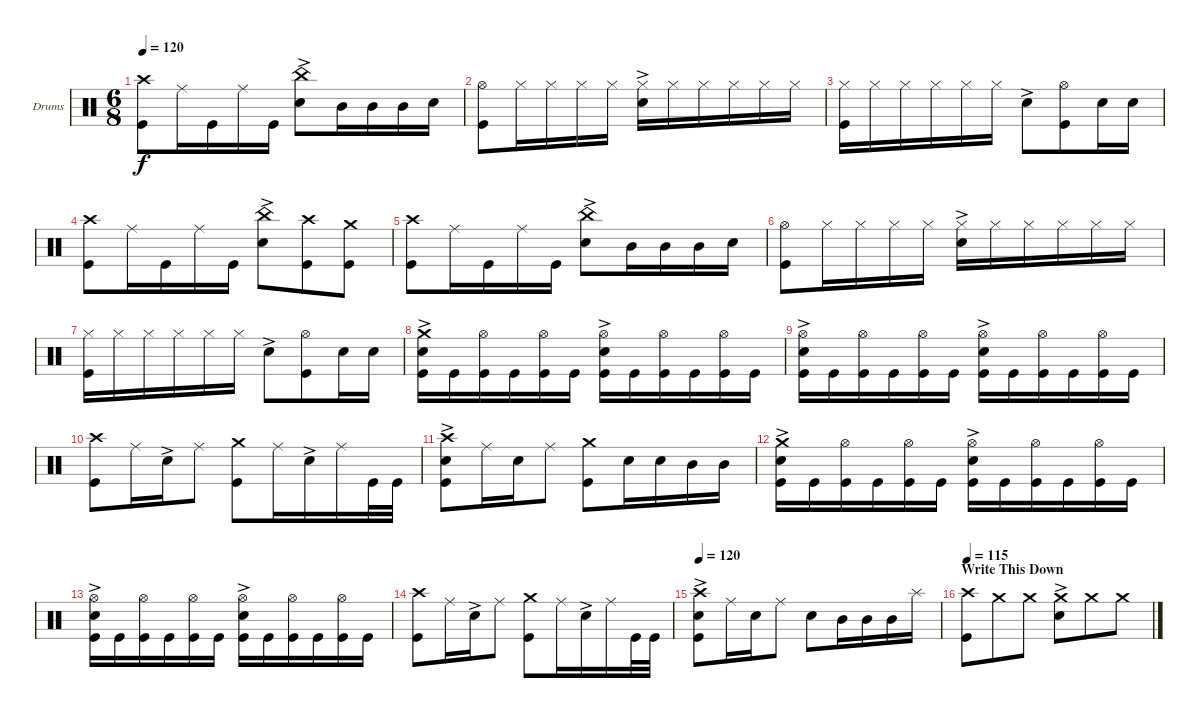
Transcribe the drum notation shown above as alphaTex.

\bracketExtendMode groupsimilarinstruments
\firstSystemTrackNameOrientation horizontal
\otherSystemsTrackNameOrientation horizontal
\track ("Drumkit" "Drums") {instrument percussion}
\staff {score}
\articulation defaults
\ts (6 8)
\tempo 120
\clef neutral
\ks c
("Kick (hit)" "Crash high (hit)").8{dy f} "Ride (middle)".16 "Kick (hit)".16 "Ride (middle)".16 "Kick (hit)".16 ("Snare (hit) 2"{ac} "China (hit)").8 "Mid Tom (hit)".16 "Mid Tom (hit)".16 "Mid Tom (hit)".16 "Snare (hit) 2".16 |
("Hi-Hat (open)" "Kick (hit)").8 "Hi-Hat (closed)".16 "Hi-Hat (closed)".16 "Hi-Hat (closed)".16 "Hi-Hat (closed)".16 ("Hi-Hat (closed)" "Snare (hit) 2"{ac}).16 "Hi-Hat (closed)".16 "Hi-Hat (closed)".16 "Hi-Hat (closed)".16 "Hi-Hat (closed)".16 "Hi-Hat (closed)".16 |
("Hi-Hat (closed)" "Kick (hit)").16 "Hi-Hat (closed)".16 "Hi-Hat (closed)".16 "Hi-Hat (closed)".16 "Hi-Hat (closed)".16 "Hi-Hat (closed)".16 "Snare (hit) 2"{ac}.8 ("Kick (hit)" "Hi-Hat (open)").8 "Snare (hit) 2".16 "Snare (hit) 2".16 |
("Kick (hit)" "Crash high (hit)").8 "Ride (middle)".16 "Kick (hit)".16 "Ride (middle)".16 "Kick (hit)".16 ("Snare (hit) 2"{ac} "China (hit)").8 ("Kick (hit)" "Crash high (hit)").8 ("Kick (hit)" "Crash medium (hit)").8 |
("Kick (hit)" "Crash high (hit)").8 "Ride (middle)".16 "Kick (hit)".16 "Ride (middle)".16 "Kick (hit)".16 ("Snare (hit) 2"{ac} "China (hit)").8 "Mid Tom (hit)".16 "Mid Tom (hit)".16 "Mid Tom (hit)".16 "Snare (hit) 2".16 |
("Hi-Hat (open)" "Kick (hit)").8 "Hi-Hat (closed)".16 "Hi-Hat (closed)".16 "Hi-Hat (closed)".16 "Hi-Hat (closed)".16 ("Hi-Hat (closed)" "Snare (hit) 2"{ac}).16 "Hi-Hat (closed)".16 "Hi-Hat (closed)".16 "Hi-Hat (closed)".16 "Hi-Hat (closed)".16 "Hi-Hat (closed)".16 |
("Hi-Hat (closed)" "Kick (hit)").16 "Hi-Hat (closed)".16 "Hi-Hat (closed)".16 "Hi-Hat (closed)".16 "Hi-Hat (closed)".16 "Hi-Hat (closed)".16 "Snare (hit) 2"{ac}.8 ("Kick (hit)" "Hi-Hat (open)").8 "Snare (hit) 2".16 "Snare (hit) 2".16 |
("Kick (hit)" "Crash medium (hit)" "Snare (hit) 2"{ac}).16 "Kick (hit)".16 ("Kick (hit)" "Hi-Hat (open)").16 "Kick (hit)".16 ("Kick (hit)" "Hi-Hat (open)").16 "Kick (hit)".16 ("Kick (hit)" "Hi-Hat (open)" "Snare (hit) 2"{ac}).16 "Kick (hit)".16 ("Kick (hit)" "Hi-Hat (open)").16 "Kick (hit)".16 ("Kick (hit)" "Hi-Hat (open)").16 "Kick (hit)".16 |
("Kick (hit)" "Hi-Hat (open)" "Snare (hit) 2"{ac}).16 "Kick (hit)".16 ("Kick (hit)" "Hi-Hat (open)").16 "Kick (hit)".16 ("Kick (hit)" "Hi-Hat (open)").16 "Kick (hit)".16 ("Kick (hit)" "Hi-Hat (open)" "Snare (hit) 2"{ac}).16 "Kick (hit)".16 ("Kick (hit)" "Hi-Hat (open)").16 "Kick (hit)".16 ("Kick (hit)" "Hi-Hat (open)").16 "Kick (hit)".16 |
("Kick (hit)" "Crash high (hit)").8 "Ride (middle)".16 "Snare (hit) 2"{ac}.16 "Ride (middle)".8 ("Kick (hit)" "Crash medium (hit)").8 "Ride (middle)".16 "Snare (hit) 2"{ac}.16 "Ride (middle)".16 "Kick (hit)".32 "Kick (hit)".32 |
("Kick (hit)" "Crash high (hit)" "Snare (hit) 2"{ac}).8 "Ride (middle)".16 "Snare (hit) 2".16 "Ride (middle)".8 ("Kick (hit)" "Crash medium (hit)").8 "Snare (hit) 2".16 "Snare (hit) 2".16 "Mid Tom (hit)".16 "Mid Tom (hit)".16 |
("Kick (hit)" "Crash medium (hit)" "Snare (hit) 2"{ac}).16 "Kick (hit)".16 ("Kick (hit)" "Hi-Hat (open)").16 "Kick (hit)".16 ("Kick (hit)" "Hi-Hat (open)").16 "Kick (hit)".16 ("Kick (hit)" "Hi-Hat (open)" "Snare (hit) 2"{ac}).16 "Kick (hit)".16 ("Kick (hit)" "Hi-Hat (open)").16 "Kick (hit)".16 ("Kick (hit)" "Hi-Hat (open)").16 "Kick (hit)".16 |
("Kick (hit)" "Hi-Hat (open)" "Snare (hit) 2"{ac}).16 "Kick (hit)".16 ("Kick (hit)" "Hi-Hat (open)").16 "Kick (hit)".16 ("Kick (hit)" "Hi-Hat (open)").16 "Kick (hit)".16 ("Kick (hit)" "Hi-Hat (open)" "Snare (hit) 2"{ac}).16 "Kick (hit)".16 ("Kick (hit)" "Hi-Hat (open)").16 "Kick (hit)".16 ("Kick (hit)" "Hi-Hat (open)").16 "Kick (hit)".16 |
("Kick (hit)" "Crash high (hit)").8 "Ride (middle)".16 "Snare (hit) 2"{ac}.16 "Ride (middle)".8 ("Kick (hit)" "Crash medium (hit)").8 "Ride (middle)".16 "Snare (hit) 2"{ac}.16 "Ride (middle)".16 "Kick (hit)".32 "Kick (hit)".32 |
\tempo 120
("Kick (hit)" "Crash high (hit)" "Snare (hit) 2"{ac}).8 "Ride (middle)".16 "Snare (hit) 2".16 "Ride (middle)".8 "Snare (hit) 2".8 "Mid Tom (hit)".16 "Mid Tom (hit)".16 "Mid Tom (hit)".16 "Splash (hit)".16 |
\section ("" "Write This Down")
\tempo 115
("Kick (hit)" "Crash high (hit)").8 "Crash medium (hit)".8 "Crash medium (hit)".8 ("Snare (hit) 2"{ac} "Crash medium (hit)").8 "Crash medium (hit)".8 "Crash medium (hit)".8
